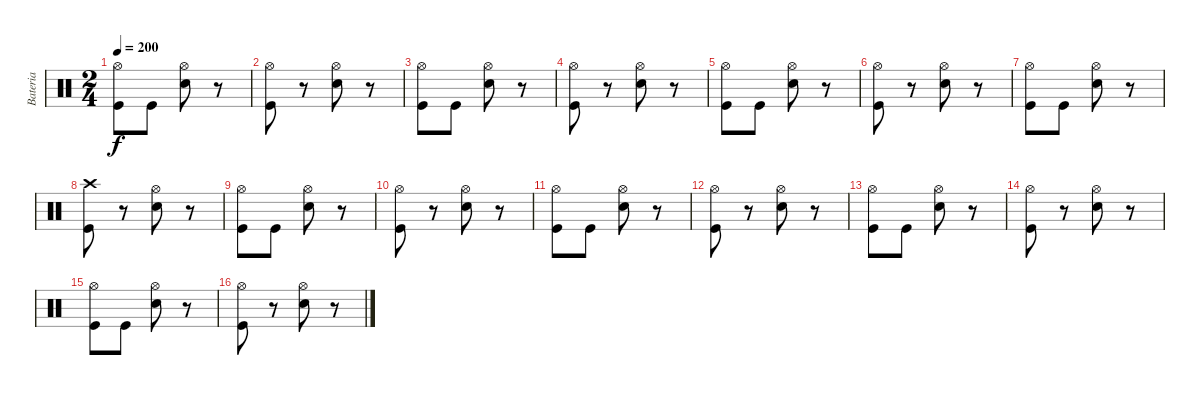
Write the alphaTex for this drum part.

\track ("Bateria" "Bateria") {instrument percussion}
\staff {score}
\articulation defaults
\ts (2 4)
\tempo 200
\clef neutral
\ks c
("Kick (hit)" "Hi-Hat (open)").8{dy f} "Kick (hit)".8 ("Electric Snare (hit)" "Hi-Hat (open)").8 r.8 |
("Kick (hit)" "Hi-Hat (open)").8 r.8 ("Electric Snare (hit)" "Hi-Hat (open)").8 r.8 |
("Kick (hit)" "Hi-Hat (open)").8 "Kick (hit)".8 ("Electric Snare (hit)" "Hi-Hat (open)").8 r.8 |
("Kick (hit)" "Hi-Hat (open)").8 r.8 ("Electric Snare (hit)" "Hi-Hat (open)").8 r.8 |
("Kick (hit)" "Hi-Hat (open)").8 "Kick (hit)".8 ("Electric Snare (hit)" "Hi-Hat (open)").8 r.8 |
("Kick (hit)" "Hi-Hat (open)").8 r.8 ("Electric Snare (hit)" "Hi-Hat (open)").8 r.8 |
("Kick (hit)" "Hi-Hat (open)").8 "Kick (hit)".8 ("Electric Snare (hit)" "Hi-Hat (open)").8 r.8 |
("Kick (hit)" "Crash high (hit)").8 r.8 ("Electric Snare (hit)" "Hi-Hat (open)").8 r.8 |
("Kick (hit)" "Hi-Hat (open)").8 "Kick (hit)".8 ("Electric Snare (hit)" "Hi-Hat (open)").8 r.8 |
("Kick (hit)" "Hi-Hat (open)").8 r.8 ("Electric Snare (hit)" "Hi-Hat (open)").8 r.8 |
("Kick (hit)" "Hi-Hat (open)").8 "Kick (hit)".8 ("Electric Snare (hit)" "Hi-Hat (open)").8 r.8 |
("Kick (hit)" "Hi-Hat (open)").8 r.8 ("Electric Snare (hit)" "Hi-Hat (open)").8 r.8 |
("Kick (hit)" "Hi-Hat (open)").8 "Kick (hit)".8 ("Electric Snare (hit)" "Hi-Hat (open)").8 r.8 |
("Kick (hit)" "Hi-Hat (open)").8 r.8 ("Electric Snare (hit)" "Hi-Hat (open)").8 r.8 |
("Kick (hit)" "Hi-Hat (open)").8 "Kick (hit)".8 ("Electric Snare (hit)" "Hi-Hat (open)").8 r.8 |
("Kick (hit)" "Hi-Hat (open)").8 r.8 ("Electric Snare (hit)" "Hi-Hat (open)").8 r.8
